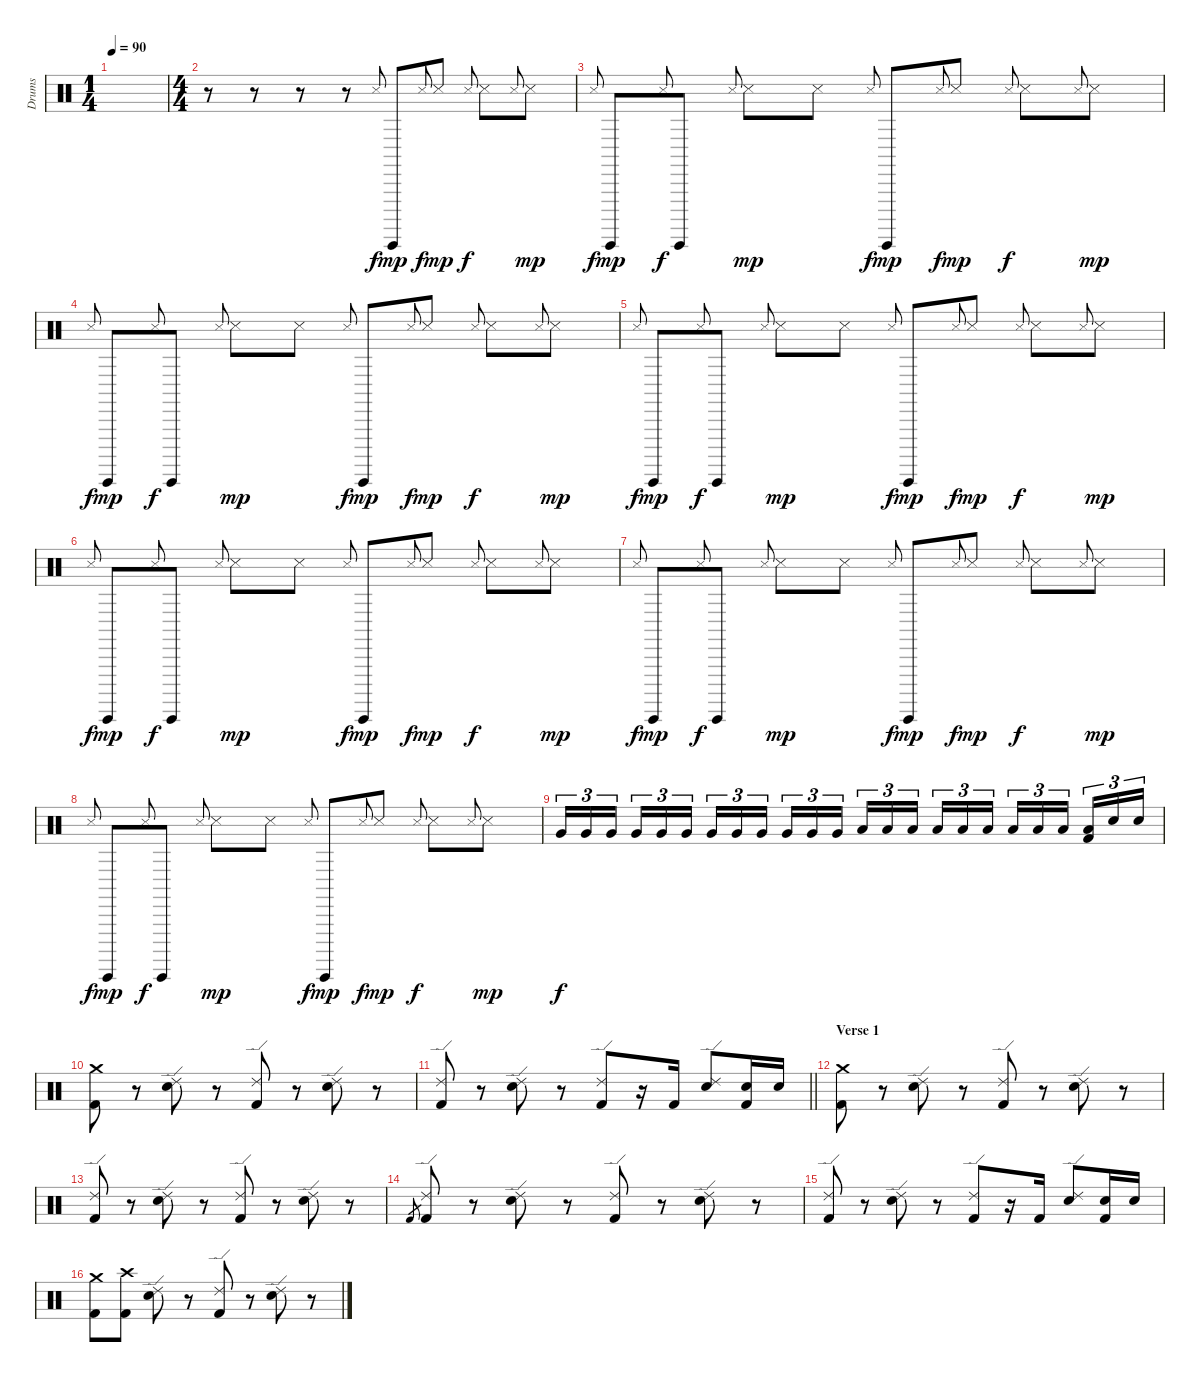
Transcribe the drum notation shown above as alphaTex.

\track ("Drums" "Drums") {instrument percussion}
\staff {score}
\articulation defaults
\ts (1 4)
\tempo 90
\clef neutral
\ks c
|
\ts (4 4)
r.8 r.8 r.8 r.8 "Snare (side stick) 3".8{gr onbeat} "Guiro (hit)".8{dy mp} "Snare (side stick) 3".8{gr onbeat dy f} "Snare (side stick) 3".8{dy mp} "Snare (side stick) 3".8{gr onbeat dy f} "Snare (side stick) 3".8 "Snare (side stick) 3".8{gr onbeat} "Snare (side stick) 3".8{dy mp} |
"Snare (side stick) 3".8{gr onbeat dy f} "Guiro (hit)".8{dy mp} "Snare (side stick) 3".8{gr onbeat dy f} "Guiro (hit)".8 "Snare (side stick) 3".8{gr onbeat} "Snare (side stick) 3".8{dy mp} "Snare (side stick) 3".8 "Snare (side stick) 3".8{gr onbeat dy f} "Guiro (hit)".8{dy mp} "Snare (side stick) 3".8{gr onbeat dy f} "Snare (side stick) 3".8{dy mp} "Snare (side stick) 3".8{gr onbeat dy f} "Snare (side stick) 3".8 "Snare (side stick) 3".8{gr onbeat} "Snare (side stick) 3".8{dy mp} |
"Snare (side stick) 3".8{gr onbeat dy f} "Guiro (hit)".8{dy mp} "Snare (side stick) 3".8{gr onbeat dy f} "Guiro (hit)".8 "Snare (side stick) 3".8{gr onbeat} "Snare (side stick) 3".8{dy mp} "Snare (side stick) 3".8 "Snare (side stick) 3".8{gr onbeat dy f} "Guiro (hit)".8{dy mp} "Snare (side stick) 3".8{gr onbeat dy f} "Snare (side stick) 3".8{dy mp} "Snare (side stick) 3".8{gr onbeat dy f} "Snare (side stick) 3".8 "Snare (side stick) 3".8{gr onbeat} "Snare (side stick) 3".8{dy mp} |
"Snare (side stick) 3".8{gr onbeat dy f} "Guiro (hit)".8{dy mp} "Snare (side stick) 3".8{gr onbeat dy f} "Guiro (hit)".8 "Snare (side stick) 3".8{gr onbeat} "Snare (side stick) 3".8{dy mp} "Snare (side stick) 3".8 "Snare (side stick) 3".8{gr onbeat dy f} "Guiro (hit)".8{dy mp} "Snare (side stick) 3".8{gr onbeat dy f} "Snare (side stick) 3".8{dy mp} "Snare (side stick) 3".8{gr onbeat dy f} "Snare (side stick) 3".8 "Snare (side stick) 3".8{gr onbeat} "Snare (side stick) 3".8{dy mp} |
"Snare (side stick) 3".8{gr onbeat dy f} "Guiro (hit)".8{dy mp} "Snare (side stick) 3".8{gr onbeat dy f} "Guiro (hit)".8 "Snare (side stick) 3".8{gr onbeat} "Snare (side stick) 3".8{dy mp} "Snare (side stick) 3".8 "Snare (side stick) 3".8{gr onbeat dy f} "Guiro (hit)".8{dy mp} "Snare (side stick) 3".8{gr onbeat dy f} "Snare (side stick) 3".8{dy mp} "Snare (side stick) 3".8{gr onbeat dy f} "Snare (side stick) 3".8 "Snare (side stick) 3".8{gr onbeat} "Snare (side stick) 3".8{dy mp} |
"Snare (side stick) 3".8{gr onbeat dy f} "Guiro (hit)".8{dy mp} "Snare (side stick) 3".8{gr onbeat dy f} "Guiro (hit)".8 "Snare (side stick) 3".8{gr onbeat} "Snare (side stick) 3".8{dy mp} "Snare (side stick) 3".8 "Snare (side stick) 3".8{gr onbeat dy f} "Guiro (hit)".8{dy mp} "Snare (side stick) 3".8{gr onbeat dy f} "Snare (side stick) 3".8{dy mp} "Snare (side stick) 3".8{gr onbeat dy f} "Snare (side stick) 3".8 "Snare (side stick) 3".8{gr onbeat} "Snare (side stick) 3".8{dy mp} |
"Snare (side stick) 3".8{gr onbeat dy f} "Guiro (hit)".8{dy mp} "Snare (side stick) 3".8{gr onbeat dy f} "Guiro (hit)".8 "Snare (side stick) 3".8{gr onbeat} "Snare (side stick) 3".8{dy mp} "Snare (side stick) 3".8 "Snare (side stick) 3".8{gr onbeat dy f} "Guiro (hit)".8{dy mp} "Snare (side stick) 3".8{gr onbeat dy f} "Snare (side stick) 3".8{dy mp} "Snare (side stick) 3".8{gr onbeat dy f} "Snare (side stick) 3".8 "Snare (side stick) 3".8{gr onbeat} "Snare (side stick) 3".8{dy mp} |
"Very Low Tom (hit)".16{tu (3 2) dy f} "Very Low Tom (hit)".16{tu (3 2)} "Very Low Tom (hit)".16{tu (3 2) beam splitsecondary} "Very Low Tom (hit)".16{tu (3 2)} "Very Low Tom (hit)".16{tu (3 2)} "Very Low Tom (hit)".16{tu (3 2)} "Very Low Tom (hit)".16{tu (3 2)} "Very Low Tom (hit)".16{tu (3 2)} "Very Low Tom (hit)".16{tu (3 2) beam splitsecondary} "Very Low Tom (hit)".16{tu (3 2)} "Very Low Tom (hit)".16{tu (3 2)} "Very Low Tom (hit)".16{tu (3 2)} "Low Floor Tom (hit)".16{tu (3 2)} "Low Floor Tom (hit)".16{tu (3 2)} "Low Floor Tom (hit)".16{tu (3 2) beam splitsecondary} "Low Floor Tom (hit)".16{tu (3 2)} "Low Floor Tom (hit)".16{tu (3 2)} "Low Floor Tom (hit)".16{tu (3 2)} "Low Floor Tom (hit)".16{tu (3 2)} "Low Floor Tom (hit)".16{tu (3 2)} "Low Floor Tom (hit)".16{tu (3 2) beam splitsecondary} ("Low Floor Tom (hit)" "Kick (hit) 2").16{tu (3 2)} "Snare (hit) 2".16{tu (3 2)} "Snare (hit) 2".16{tu (3 2)} |
("Crash medium (hit)" "Kick (hit) 2").8 r.8 ("Ride (edge) 2" "Snare (hit) 2").8 r.8 ("Ride (edge) 2" "Kick (hit) 2").8 r.8 ("Ride (edge) 2" "Snare (hit) 2").8 r.8 |
\barLineRight lightlight
("Ride (edge) 2" "Kick (hit) 2").8 r.8 ("Ride (edge) 2" "Snare (hit) 2").8 r.8 ("Ride (edge) 2" "Kick (hit) 2").8 r.16 "Kick (hit) 2".16 ("Ride (edge) 2" "Snare (hit) 2").8 ("Snare (hit) 2" "Kick (hit) 2").16 "Snare (hit) 2".16 |
\section ("" "Verse 1")
("Crash medium (hit)" "Kick (hit) 2").8 r.8 ("Ride (edge) 2" "Snare (hit) 2").8 r.8 ("Ride (edge) 2" "Kick (hit) 2").8 r.8 ("Ride (edge) 2" "Snare (hit) 2").8 r.8 |
("Ride (edge) 2" "Kick (hit) 2").8 r.8 ("Ride (edge) 2" "Snare (hit) 2").8 r.8 ("Ride (edge) 2" "Kick (hit) 2").8 r.8 ("Ride (edge) 2" "Snare (hit) 2").8 r.8 |
"Kick (hit) 2".8{gr} ("Ride (edge) 2" "Kick (hit) 2").8 r.8 ("Ride (edge) 2" "Snare (hit) 2").8 r.8 ("Ride (edge) 2" "Kick (hit) 2").8 r.8 ("Ride (edge) 2" "Snare (hit) 2").8 r.8 |
("Ride (edge) 2" "Kick (hit) 2").8 r.8 ("Ride (edge) 2" "Snare (hit) 2").8 r.8 ("Ride (edge) 2" "Kick (hit) 2").8 r.16 "Kick (hit) 2".16 ("Ride (edge) 2" "Snare (hit) 2").8 ("Snare (hit) 2" "Kick (hit) 2").16 "Snare (hit) 2".16 |
("Crash medium (hit)" "Kick (hit) 2").8 ("Crash high (hit)" "Kick (hit) 2").8 ("Ride (edge) 2" "Snare (hit) 2").8 r.8 ("Ride (edge) 2" "Kick (hit) 2").8 r.8 ("Ride (edge) 2" "Snare (hit) 2").8 r.8
